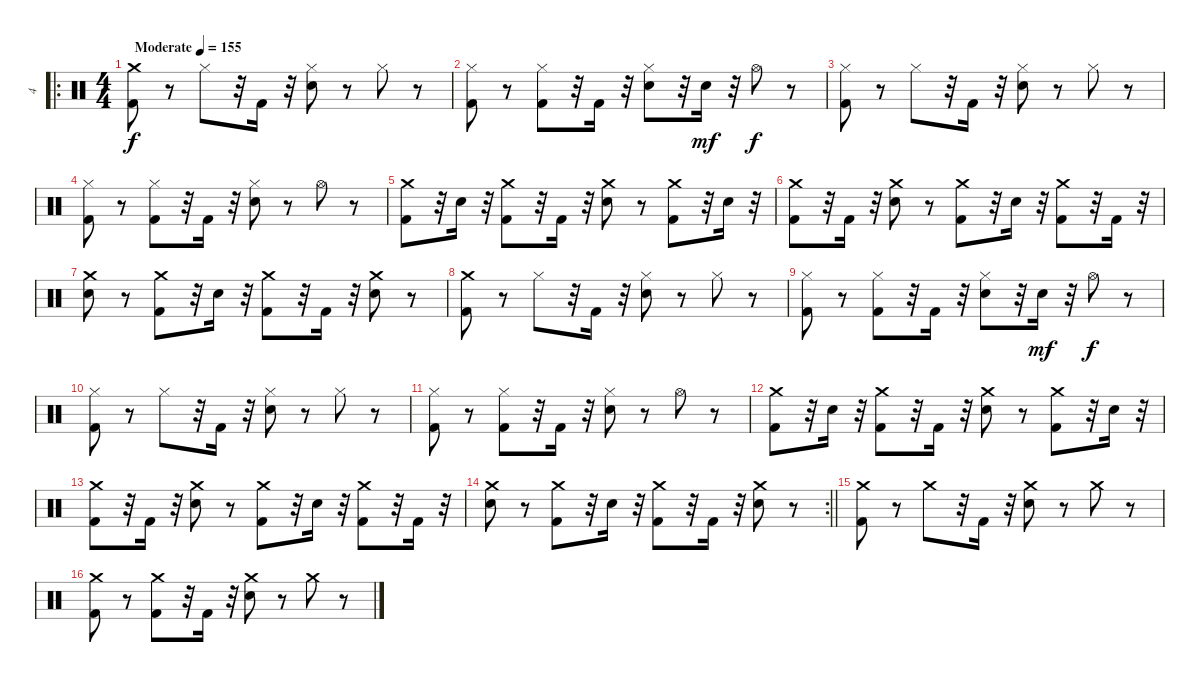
\track ("4" "4") {instrument percussion}
\staff {score}
\articulation defaults
\ro
\ts (4 4)
\section ("" "")
\tempo (155 "Moderate")
\clef neutral
\ks c
("Crash medium (hit)" "Kick (hit) 2").8{dy f} r.8 "Hi-Hat (closed)".8 r.32 "Kick (hit) 2".16 r.32 ("Hi-Hat (closed)" "Electric Snare (hit)").8 r.8 "Hi-Hat (closed)".8 r.8 |
("Hi-Hat (closed)" "Kick (hit) 2").8 r.8 ("Hi-Hat (closed)" "Kick (hit) 2").8 r.32 "Kick (hit) 2".16 r.32 ("Hi-Hat (closed)" "Electric Snare (hit)").8 r.32 "Electric Snare (hit)".16{dy mf} r.32 "Hi-Hat (open)".8{dy f} r.8 |
("Hi-Hat (closed)" "Kick (hit) 2").8 r.8 "Hi-Hat (closed)".8 r.32 "Kick (hit) 2".16 r.32 ("Hi-Hat (closed)" "Electric Snare (hit)").8 r.8 "Hi-Hat (closed)".8 r.8 |
("Hi-Hat (closed)" "Kick (hit) 2").8 r.8 ("Hi-Hat (closed)" "Kick (hit) 2").8 r.32 "Kick (hit) 2".16 r.32 ("Hi-Hat (closed)" "Electric Snare (hit)").8 r.8 "Hi-Hat (open)".8 r.8 |
("Crash medium (hit)" "Kick (hit) 2").8 r.32 "Electric Snare (hit)".16 r.32 ("Crash medium (hit)" "Kick (hit) 2").8 r.32 "Kick (hit) 2".16 r.32 ("Crash medium (hit)" "Electric Snare (hit)").8 r.8 ("Crash medium (hit)" "Kick (hit) 2").8 r.32 "Electric Snare (hit)".16 r.32 |
("Crash medium (hit)" "Kick (hit) 2").8 r.32 "Kick (hit) 2".16 r.32 ("Crash medium (hit)" "Electric Snare (hit)").8 r.8 ("Crash medium (hit)" "Kick (hit) 2").8 r.32 "Electric Snare (hit)".16 r.32 ("Crash medium (hit)" "Kick (hit) 2").8 r.32 "Kick (hit) 2".16 r.32 |
("Crash medium (hit)" "Electric Snare (hit)").8 r.8 ("Crash medium (hit)" "Kick (hit) 2").8 r.32 "Electric Snare (hit)".16 r.32 ("Crash medium (hit)" "Kick (hit) 2").8 r.32 "Kick (hit) 2".16 r.32 ("Crash medium (hit)" "Electric Snare (hit)").8 r.8 |
("Crash medium (hit)" "Kick (hit) 2").8 r.8 "Hi-Hat (closed)".8 r.32 "Kick (hit) 2".16 r.32 ("Hi-Hat (closed)" "Electric Snare (hit)").8 r.8 "Hi-Hat (closed)".8 r.8 |
("Hi-Hat (closed)" "Kick (hit) 2").8 r.8 ("Hi-Hat (closed)" "Kick (hit) 2").8 r.32 "Kick (hit) 2".16 r.32 ("Hi-Hat (closed)" "Electric Snare (hit)").8 r.32 "Electric Snare (hit)".16{dy mf} r.32 "Hi-Hat (open)".8{dy f} r.8 |
("Hi-Hat (closed)" "Kick (hit) 2").8 r.8 "Hi-Hat (closed)".8 r.32 "Kick (hit) 2".16 r.32 ("Hi-Hat (closed)" "Electric Snare (hit)").8 r.8 "Hi-Hat (closed)".8 r.8 |
("Hi-Hat (closed)" "Kick (hit) 2").8 r.8 ("Hi-Hat (closed)" "Kick (hit) 2").8 r.32 "Kick (hit) 2".16 r.32 ("Hi-Hat (closed)" "Electric Snare (hit)").8 r.8 "Hi-Hat (open)".8 r.8 |
("Crash medium (hit)" "Kick (hit) 2").8 r.32 "Electric Snare (hit)".16 r.32 ("Crash medium (hit)" "Kick (hit) 2").8 r.32 "Kick (hit) 2".16 r.32 ("Crash medium (hit)" "Electric Snare (hit)").8 r.8 ("Crash medium (hit)" "Kick (hit) 2").8 r.32 "Electric Snare (hit)".16 r.32 |
("Crash medium (hit)" "Kick (hit) 2").8 r.32 "Kick (hit) 2".16 r.32 ("Crash medium (hit)" "Electric Snare (hit)").8 r.8 ("Crash medium (hit)" "Kick (hit) 2").8 r.32 "Electric Snare (hit)".16 r.32 ("Crash medium (hit)" "Kick (hit) 2").8 r.32 "Kick (hit) 2".16 r.32 |
\rc 2
\barLineRight lightlight
("Crash medium (hit)" "Electric Snare (hit)").8 r.8 ("Crash medium (hit)" "Kick (hit) 2").8 r.32 "Electric Snare (hit)".16 r.32 ("Crash medium (hit)" "Kick (hit) 2").8 r.32 "Kick (hit) 2".16 r.32 ("Crash medium (hit)" "Electric Snare (hit)").8 r.8 |
\section ("" "")
("Crash medium (hit)" "Kick (hit) 2").8 r.8 "Crash medium (hit)".8 r.32 "Kick (hit) 2".16 r.32 ("Crash medium (hit)" "Electric Snare (hit)").8 r.8 "Crash medium (hit)".8 r.8 |
("Crash medium (hit)" "Kick (hit) 2").8 r.8 ("Crash medium (hit)" "Kick (hit) 2").8 r.32 "Kick (hit) 2".16 r.32 ("Crash medium (hit)" "Electric Snare (hit)").8 r.8 "Crash medium (hit)".8 r.8
